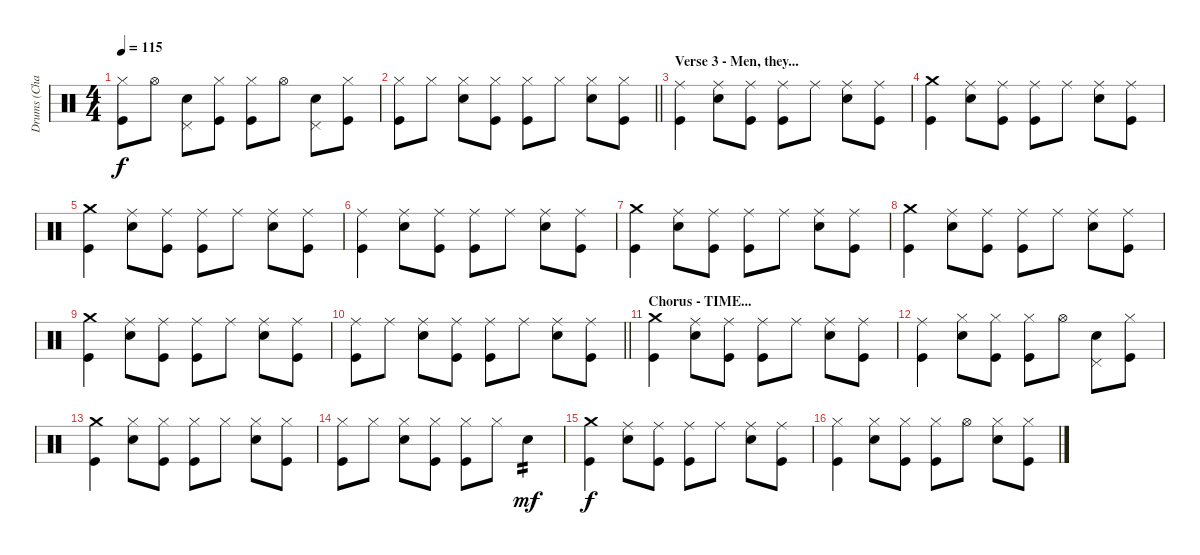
\track ("Drums (Charlie)" "Drums (Cha") {instrument percussion}
\staff {score}
\articulation defaults
\ts (4 4)
\tempo 115
\clef neutral
\ks c
("Hi-Hat (closed)" "Kick (hit)").8{dy f} "Hi-Hat (open)".8 ("Pedal Hi-Hat (hit)" "Electric Snare (hit)").8 ("Hi-Hat (closed)" "Kick (hit)").8 ("Hi-Hat (closed)" "Kick (hit)").8 "Hi-Hat (open)".8 ("Pedal Hi-Hat (hit)" "Electric Snare (hit)").8 ("Hi-Hat (closed)" "Kick (hit)").8 |
\barLineRight lightlight
("Hi-Hat (closed)" "Kick (hit)").8 "Hi-Hat (closed)".8 ("Hi-Hat (closed)" "Electric Snare (hit)").8 ("Hi-Hat (closed)" "Kick (hit)").8 ("Hi-Hat (closed)" "Kick (hit)").8 "Hi-Hat (closed)".8 ("Hi-Hat (closed)" "Electric Snare (hit)").8 ("Hi-Hat (closed)" "Kick (hit)").8 |
\section ("" "Verse 3 - Men, they...")
("Ride (middle)" "Kick (hit)").4 ("Ride (middle)" "Electric Snare (hit)").8 ("Ride (middle)" "Kick (hit)").8 ("Ride (middle)" "Kick (hit)").8 "Ride (middle)".8 ("Ride (middle)" "Electric Snare (hit)").8 ("Ride (middle)" "Kick (hit)").8 |
("Crash medium (hit)" "Kick (hit)").4 ("Ride (middle)" "Electric Snare (hit)").8 ("Ride (middle)" "Kick (hit)").8 ("Ride (middle)" "Kick (hit)").8 "Ride (middle)".8 ("Ride (middle)" "Electric Snare (hit)").8 ("Ride (middle)" "Kick (hit)").8 |
("Crash medium (hit)" "Kick (hit)").4 ("Ride (middle)" "Electric Snare (hit)").8 ("Ride (middle)" "Kick (hit)").8 ("Ride (middle)" "Kick (hit)").8 "Ride (middle)".8 ("Ride (middle)" "Electric Snare (hit)").8 ("Ride (middle)" "Kick (hit)").8 |
("Ride (middle)" "Kick (hit)").4 ("Ride (middle)" "Electric Snare (hit)").8 ("Ride (middle)" "Kick (hit)").8 ("Ride (middle)" "Kick (hit)").8 "Ride (middle)".8 ("Ride (middle)" "Electric Snare (hit)").8 ("Ride (middle)" "Kick (hit)").8 |
("Crash medium (hit)" "Kick (hit)").4 ("Ride (middle)" "Electric Snare (hit)").8 ("Ride (middle)" "Kick (hit)").8 ("Ride (middle)" "Kick (hit)").8 "Ride (middle)".8 ("Ride (middle)" "Electric Snare (hit)").8 ("Ride (middle)" "Kick (hit)").8 |
("Crash medium (hit)" "Kick (hit)").4 ("Ride (middle)" "Electric Snare (hit)").8 ("Ride (middle)" "Kick (hit)").8 ("Ride (middle)" "Kick (hit)").8 "Ride (middle)".8 ("Ride (middle)" "Electric Snare (hit)").8 ("Ride (middle)" "Kick (hit)").8 |
("Crash medium (hit)" "Kick (hit)").4 ("Ride (middle)" "Electric Snare (hit)").8 ("Ride (middle)" "Kick (hit)").8 ("Ride (middle)" "Kick (hit)").8 "Ride (middle)".8 ("Ride (middle)" "Electric Snare (hit)").8 ("Ride (middle)" "Kick (hit)").8 |
\barLineRight lightlight
("Ride (middle)" "Kick (hit)").8 "Ride (middle)".8 ("Ride (middle)" "Electric Snare (hit)").8 ("Ride (middle)" "Kick (hit)").8 ("Ride (middle)" "Kick (hit)").8 "Ride (middle)".8 ("Ride (middle)" "Electric Snare (hit)").8 ("Ride (middle)" "Kick (hit)").8 |
\section ("" "Chorus - TIME...")
("Crash medium (hit)" "Kick (hit)").4 ("Ride (middle)" "Electric Snare (hit)").8 ("Ride (middle)" "Kick (hit)").8 ("Ride (middle)" "Kick (hit)").8 "Ride (middle)".8 ("Ride (middle)" "Electric Snare (hit)").8 ("Ride (middle)" "Kick (hit)").8 |
("Ride (middle)" "Kick (hit)").4 ("Hi-Hat (closed)" "Electric Snare (hit)").8 ("Hi-Hat (closed)" "Kick (hit)").8 ("Hi-Hat (closed)" "Kick (hit)").8 "Hi-Hat (open)".8 ("Pedal Hi-Hat (hit)" "Electric Snare (hit)").8 ("Hi-Hat (closed)" "Kick (hit)").8 |
("Crash medium (hit)" "Kick (hit)").4 ("Hi-Hat (closed)" "Electric Snare (hit)").8 ("Hi-Hat (closed)" "Kick (hit)").8 ("Hi-Hat (closed)" "Kick (hit)").8 "Hi-Hat (closed)".8 ("Hi-Hat (closed)" "Electric Snare (hit)").8 ("Hi-Hat (closed)" "Kick (hit)").8 |
("Hi-Hat (closed)" "Kick (hit)").8 "Hi-Hat (closed)".8 ("Hi-Hat (closed)" "Electric Snare (hit)").8 ("Hi-Hat (closed)" "Kick (hit)").8 ("Hi-Hat (closed)" "Kick (hit)").8 "Hi-Hat (closed)".8 "Electric Snare (hit)".4{tp 2 dy mf} |
("Crash medium (hit)" "Kick (hit)").4{dy f} ("Ride (middle)" "Electric Snare (hit)").8 ("Ride (middle)" "Kick (hit)").8 ("Ride (middle)" "Kick (hit)").8 "Ride (middle)".8 ("Ride (middle)" "Electric Snare (hit)").8 ("Ride (middle)" "Kick (hit)").8 |
("Hi-Hat (closed)" "Kick (hit)").4 ("Hi-Hat (closed)" "Electric Snare (hit)").8 ("Hi-Hat (closed)" "Kick (hit)").8 ("Hi-Hat (closed)" "Kick (hit)").8 "Hi-Hat (open)".8 ("Hi-Hat (closed)" "Electric Snare (hit)").8 ("Hi-Hat (closed)" "Kick (hit)").8
